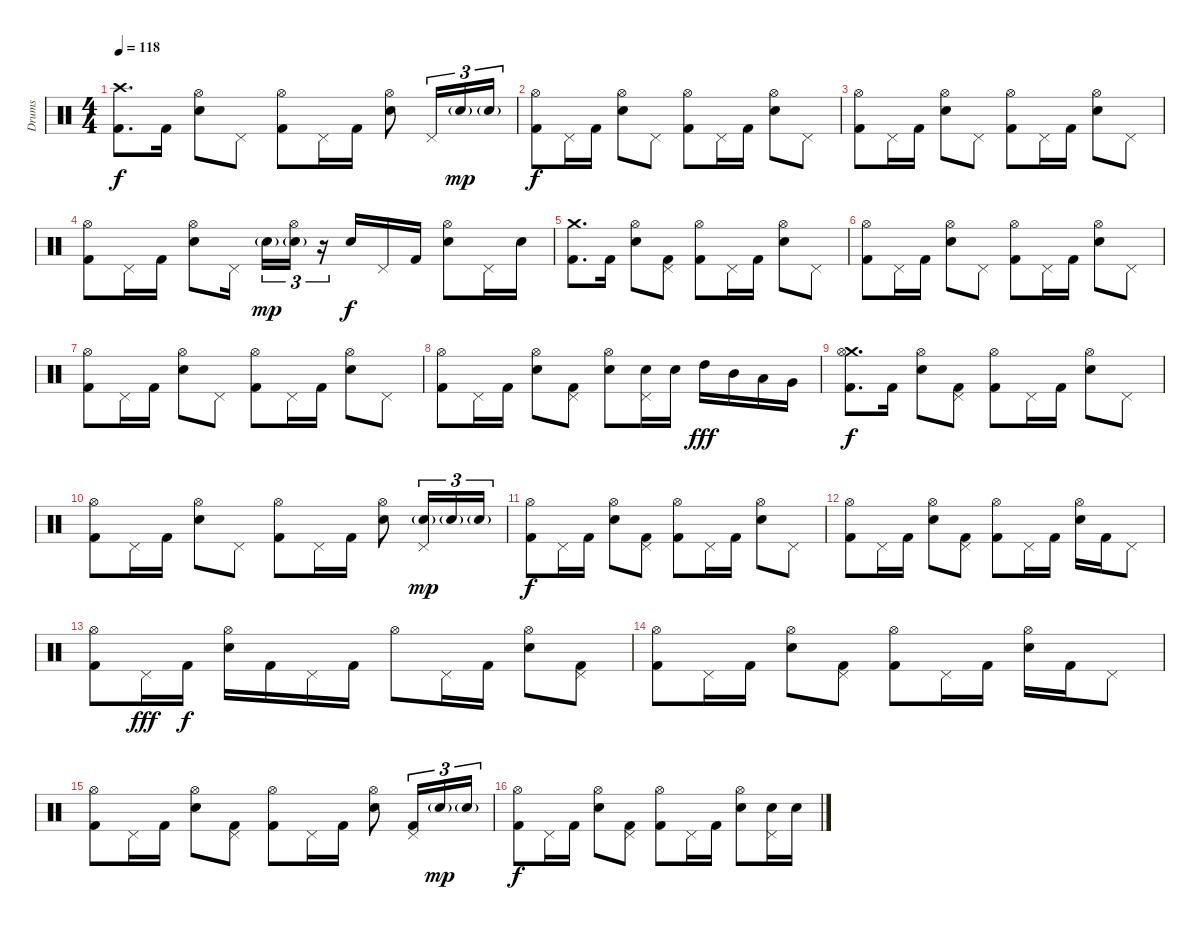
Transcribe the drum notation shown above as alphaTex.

\track ("Drums" "Drums") {instrument percussion}
\staff {score}
\articulation defaults
\ts (4 4)
\tempo 118
\clef neutral
\ks c
("Crash high (hit)" "Kick (hit) 2").8{d dy f} "Kick (hit) 2".16 ("Hi-Hat (open)" "Electric Snare (hit)").8 "Pedal Hi-Hat (hit)".8 ("Hi-Hat (open)" "Kick (hit) 2").8 "Pedal Hi-Hat (hit)".16 "Kick (hit) 2".16 ("Hi-Hat (open)" "Electric Snare (hit)").8 "Pedal Hi-Hat (hit)".16{tu (3 2)} "Electric Snare (hit)"{g}.16{tu (3 2) dy mp} "Electric Snare (hit)"{g}.16{tu (3 2)} |
("Hi-Hat (open)" "Kick (hit) 2").8{dy f} "Pedal Hi-Hat (hit)".16 "Kick (hit) 2".16 ("Hi-Hat (open)" "Electric Snare (hit)").8 "Pedal Hi-Hat (hit)".8 ("Hi-Hat (open)" "Kick (hit) 2").8 "Pedal Hi-Hat (hit)".16 "Kick (hit) 2".16 ("Hi-Hat (open)" "Electric Snare (hit)").8 "Pedal Hi-Hat (hit)".8 |
("Hi-Hat (open)" "Kick (hit) 2").8 "Pedal Hi-Hat (hit)".16 "Kick (hit) 2".16 ("Hi-Hat (open)" "Electric Snare (hit)").8 "Pedal Hi-Hat (hit)".8 ("Hi-Hat (open)" "Kick (hit) 2").8 "Pedal Hi-Hat (hit)".16 "Kick (hit) 2".16 ("Hi-Hat (open)" "Electric Snare (hit)").8 "Pedal Hi-Hat (hit)".8 |
("Hi-Hat (open)" "Kick (hit) 2").8 "Pedal Hi-Hat (hit)".16 "Kick (hit) 2".16 ("Hi-Hat (open)" "Electric Snare (hit)").8 "Pedal Hi-Hat (hit)".16{beam splitsecondary} "Electric Snare (hit)"{g}.16{tu (3 2) dy mp} ("Hi-Hat (open)" "Electric Snare (hit)"{g}).16{tu (3 2)} r.16{tu (3 2)} "Electric Snare (hit)".16{dy f} "Pedal Hi-Hat (hit)".16 "Kick (hit) 2".16 ("Hi-Hat (open)" "Electric Snare (hit)").8 "Pedal Hi-Hat (hit)".16 "Electric Snare (hit)".16 |
("Crash medium (hit)" "Kick (hit) 2").8{d} "Kick (hit) 2".16 ("Hi-Hat (open)" "Electric Snare (hit)").8 ("Pedal Hi-Hat (hit)" "Kick (hit) 2").8 ("Hi-Hat (open)" "Kick (hit) 2").8 "Pedal Hi-Hat (hit)".16 "Kick (hit) 2".16 ("Hi-Hat (open)" "Electric Snare (hit)").8 "Pedal Hi-Hat (hit)".8 |
("Hi-Hat (open)" "Kick (hit) 2").8 "Pedal Hi-Hat (hit)".16 "Kick (hit) 2".16 ("Hi-Hat (open)" "Electric Snare (hit)").8 "Pedal Hi-Hat (hit)".8 ("Hi-Hat (open)" "Kick (hit) 2").8 "Pedal Hi-Hat (hit)".16 "Kick (hit) 2".16 ("Hi-Hat (open)" "Electric Snare (hit)").8 "Pedal Hi-Hat (hit)".8 |
("Hi-Hat (open)" "Kick (hit) 2").8 "Pedal Hi-Hat (hit)".16 "Kick (hit) 2".16 ("Hi-Hat (open)" "Electric Snare (hit)").8 "Pedal Hi-Hat (hit)".8 ("Hi-Hat (open)" "Kick (hit) 2").8 "Pedal Hi-Hat (hit)".16 "Kick (hit) 2".16 ("Hi-Hat (open)" "Electric Snare (hit)").8 "Pedal Hi-Hat (hit)".8 |
("Hi-Hat (open)" "Kick (hit) 2").8 "Pedal Hi-Hat (hit)".16 "Kick (hit) 2".16 ("Hi-Hat (open)" "Electric Snare (hit)").8 ("Pedal Hi-Hat (hit)" "Kick (hit) 2").8 ("Hi-Hat (open)" "Electric Snare (hit)").8 ("Pedal Hi-Hat (hit)" "Electric Snare (hit)").16 "Electric Snare (hit)".16 "High Tom (hit)".16{dy fff} "Mid Tom (hit)".16 "Low Tom (hit)".16 "Very Low Tom (hit)".16 |
("Crash medium (hit)" "Hi-Hat (open)" "Kick (hit) 2").8{d dy f} "Kick (hit) 2".16 ("Hi-Hat (open)" "Electric Snare (hit)").8 ("Pedal Hi-Hat (hit)" "Kick (hit) 2").8 ("Hi-Hat (open)" "Kick (hit) 2").8 "Pedal Hi-Hat (hit)".16 "Kick (hit) 2".16 ("Hi-Hat (open)" "Electric Snare (hit)").8 "Pedal Hi-Hat (hit)".8 |
("Hi-Hat (open)" "Kick (hit) 2").8 "Pedal Hi-Hat (hit)".16 "Kick (hit) 2".16 ("Hi-Hat (open)" "Electric Snare (hit)").8 "Pedal Hi-Hat (hit)".8 ("Hi-Hat (open)" "Kick (hit) 2").8 "Pedal Hi-Hat (hit)".16 "Kick (hit) 2".16 ("Hi-Hat (open)" "Electric Snare (hit)").8 ("Pedal Hi-Hat (hit)" "Electric Snare (hit)"{g}).16{tu (3 2) dy mp} "Electric Snare (hit)"{g}.16{tu (3 2)} "Electric Snare (hit)"{g}.16{tu (3 2)} |
("Hi-Hat (open)" "Kick (hit) 2").8{dy f} "Pedal Hi-Hat (hit)".16 "Kick (hit) 2".16 ("Hi-Hat (open)" "Electric Snare (hit)").8 ("Pedal Hi-Hat (hit)" "Kick (hit) 2").8 ("Hi-Hat (open)" "Kick (hit) 2").8 "Pedal Hi-Hat (hit)".16 "Kick (hit) 2".16 ("Hi-Hat (open)" "Electric Snare (hit)").8 "Pedal Hi-Hat (hit)".8 |
("Hi-Hat (open)" "Kick (hit) 2").8 "Pedal Hi-Hat (hit)".16 "Kick (hit) 2".16 ("Hi-Hat (open)" "Electric Snare (hit)").8 ("Pedal Hi-Hat (hit)" "Kick (hit) 2").8 ("Hi-Hat (open)" "Kick (hit) 2").8 "Pedal Hi-Hat (hit)".16 "Kick (hit) 2".16 ("Hi-Hat (open)" "Electric Snare (hit)").16 "Kick (hit) 2".16 "Pedal Hi-Hat (hit)".8 |
("Hi-Hat (open)" "Kick (hit) 2").8 "Pedal Hi-Hat (hit)".16{dy fff} "Kick (hit) 2".16{dy f} ("Hi-Hat (open)" "Electric Snare (hit)").16 "Kick (hit) 2".16 "Pedal Hi-Hat (hit)".16 "Kick (hit) 2".16 "Hi-Hat (open)".8 "Pedal Hi-Hat (hit)".16 "Kick (hit) 2".16 ("Hi-Hat (open)" "Electric Snare (hit)").8 ("Pedal Hi-Hat (hit)" "Kick (hit) 2").8 |
("Hi-Hat (open)" "Kick (hit) 2").8 "Pedal Hi-Hat (hit)".16 "Kick (hit) 2".16 ("Hi-Hat (open)" "Electric Snare (hit)").8 ("Pedal Hi-Hat (hit)" "Kick (hit) 2").8 ("Hi-Hat (open)" "Kick (hit) 2").8 "Pedal Hi-Hat (hit)".16 "Kick (hit) 2".16 ("Hi-Hat (open)" "Electric Snare (hit)").16 "Kick (hit) 2".16 "Pedal Hi-Hat (hit)".8 |
("Hi-Hat (open)" "Kick (hit) 2").8 "Pedal Hi-Hat (hit)".16 "Kick (hit) 2".16 ("Hi-Hat (open)" "Electric Snare (hit)").8 ("Pedal Hi-Hat (hit)" "Kick (hit) 2").8 ("Hi-Hat (open)" "Kick (hit) 2").8 "Pedal Hi-Hat (hit)".16 "Kick (hit) 2".16 ("Hi-Hat (open)" "Electric Snare (hit)").8 ("Pedal Hi-Hat (hit)" "Kick (hit) 2").16{tu (3 2)} "Electric Snare (hit)"{g}.16{tu (3 2) dy mp} "Electric Snare (hit)"{g}.16{tu (3 2)} |
("Hi-Hat (open)" "Kick (hit) 2").8{dy f} "Pedal Hi-Hat (hit)".16 "Kick (hit) 2".16 ("Hi-Hat (open)" "Electric Snare (hit)").8 ("Pedal Hi-Hat (hit)" "Kick (hit) 2").8 ("Hi-Hat (open)" "Kick (hit) 2").8 "Pedal Hi-Hat (hit)".16 "Kick (hit) 2".16 ("Hi-Hat (open)" "Electric Snare (hit)").8 ("Pedal Hi-Hat (hit)" "Electric Snare (hit)").16 "Electric Snare (hit)".16
